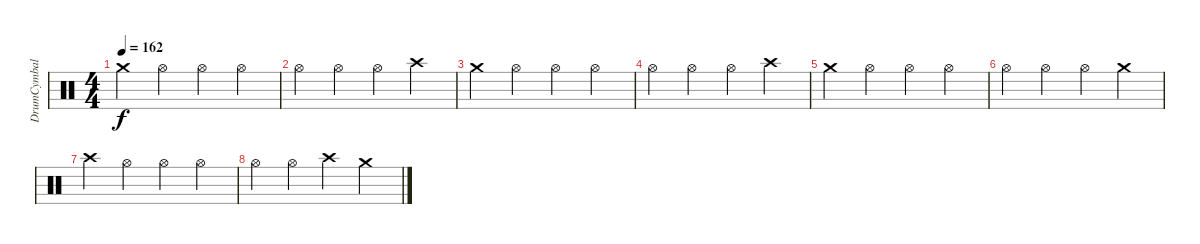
\track ("DrumCymbal" "DrumCymbal") {instrument percussion}
\staff {score}
\articulation defaults
\ts (4 4)
\tempo 162
\clef neutral
\ks c "Crash medium (hit)".4{dy f} "Hi-Hat (open)".4 "Hi-Hat (open)".4 "Hi-Hat (open)".4
|
"Hi-Hat (open)".4 "Hi-Hat (open)".4 "Hi-Hat (open)".4 "Crash high (hit)".4 |
"Crash medium (hit)".4 "Hi-Hat (open)".4 "Hi-Hat (open)".4 "Hi-Hat (open)".4 |
"Hi-Hat (open)".4 "Hi-Hat (open)".4 "Hi-Hat (open)".4 "Crash high (hit)".4 |
"Crash medium (hit)".4 "Hi-Hat (open)".4 "Hi-Hat (open)".4 "Hi-Hat (open)".4 |
"Hi-Hat (open)".4 "Hi-Hat (open)".4 "Hi-Hat (open)".4 "Crash medium (hit)".4 |
"Crash high (hit)".4 "Hi-Hat (open)".4 "Hi-Hat (open)".4 "Hi-Hat (open)".4 |
"Hi-Hat (open)".4 "Hi-Hat (open)".4 "Crash high (hit)".4 "Crash medium (hit)".4
